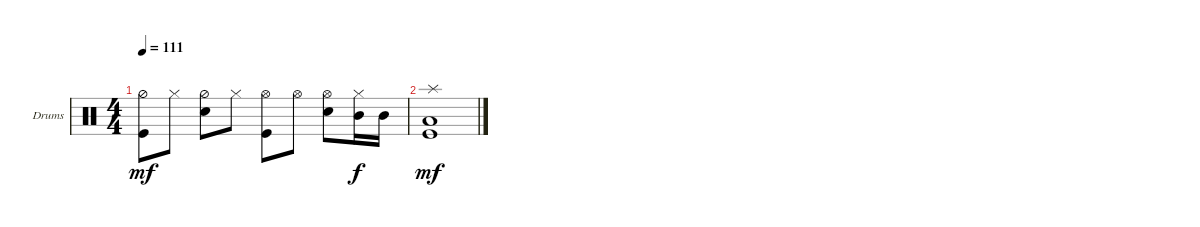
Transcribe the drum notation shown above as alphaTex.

\defaultSystemsLayout 4
\bracketExtendMode groupsimilarinstruments
\firstSystemTrackNameOrientation horizontal
\otherSystemsTrackNameOrientation horizontal
\track ("Drumkit" "Drums") {instrument percussion}
\staff {score}
\articulation defaults
\ts (4 4)
\tempo 111
\clef neutral
\scale
0.333333
\ks c
("Kick (hit)" "Hi-Hat (half)").8{dy mf} "Hi-Hat (closed)".8 ("Snare (hit) 2" "Hi-Hat (half)").8 "Hi-Hat (closed)".8 ("Kick (hit)" "Hi-Hat (open)").8 "Hi-Hat (open)".8 ("Snare (hit) 2" "Hi-Hat (open)").8 ("Hi-Hat (closed)" "Mid Tom (hit)").16{dy f} "Mid Tom (hit)".16 |
("Splash (hit)" "Kick (hit)" "Low Tom (hit)").1{dy mf}
